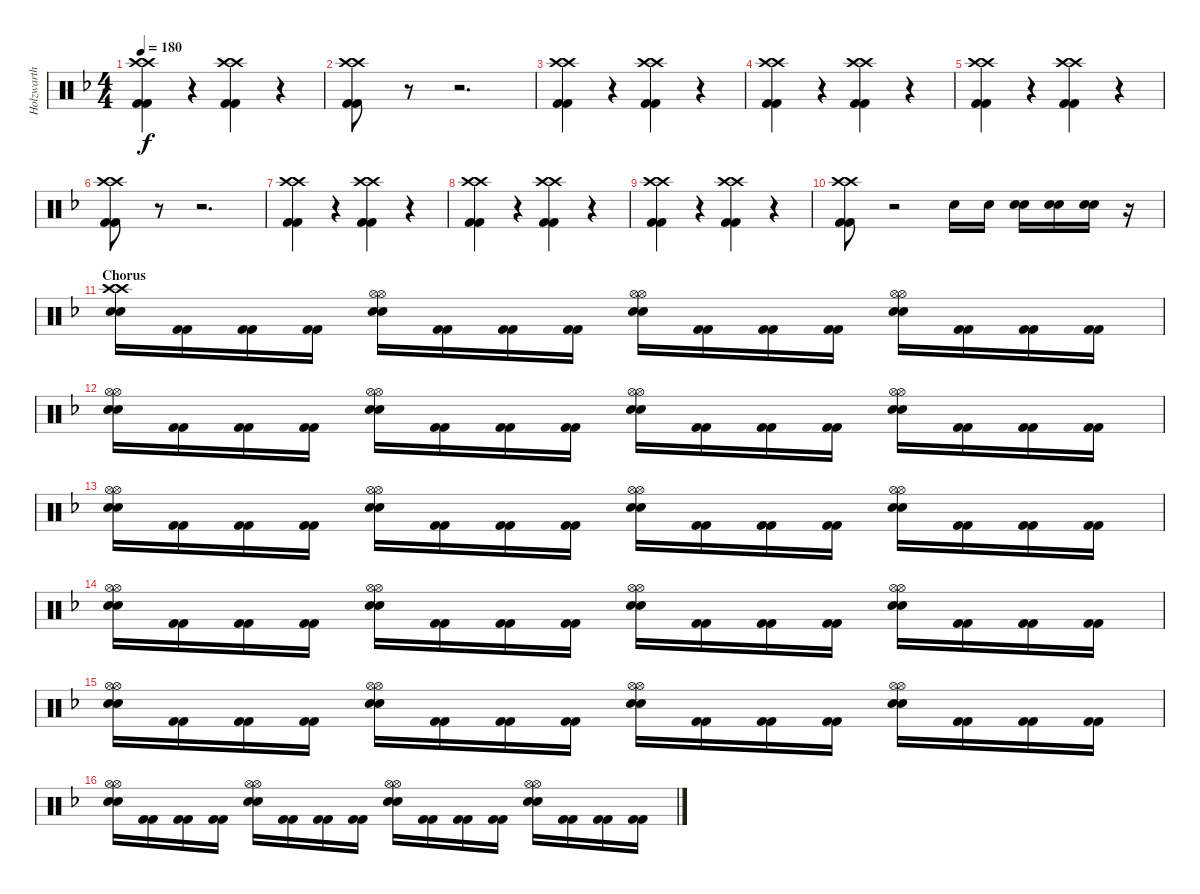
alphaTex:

\track ("Holzwarth" "Holzwarth") {instrument percussion}
\staff {score}
\articulation defaults
\ts (4 4)
\tempo 180
\clef neutral
\ks dminor
("Kick (hit) 2" "Kick (hit) 2" "Crash high (hit)" "Crash high (hit)").4{dy f} r.4 ("Kick (hit) 2" "Kick (hit) 2" "Crash high (hit)" "Crash high (hit)").4 r.4 |
("Kick (hit) 2" "Kick (hit) 2" "Crash high (hit)" "Crash high (hit)").8 r.8 r.2{d} |
("Kick (hit) 2" "Kick (hit) 2" "Crash high (hit)" "Crash high (hit)").4 r.4 ("Kick (hit) 2" "Kick (hit) 2" "Crash high (hit)" "Crash high (hit)").4 r.4 |
("Kick (hit) 2" "Kick (hit) 2" "Crash high (hit)" "Crash high (hit)").4 r.4 ("Kick (hit) 2" "Kick (hit) 2" "Crash high (hit)" "Crash high (hit)").4 r.4 |
("Kick (hit) 2" "Kick (hit) 2" "Crash high (hit)" "Crash high (hit)").4 r.4 ("Kick (hit) 2" "Kick (hit) 2" "Crash high (hit)" "Crash high (hit)").4 r.4 |
("Kick (hit) 2" "Kick (hit) 2" "Crash high (hit)" "Crash high (hit)").8 r.8 r.2{d} |
("Kick (hit) 2" "Kick (hit) 2" "Crash high (hit)" "Crash high (hit)").4 r.4 ("Kick (hit) 2" "Kick (hit) 2" "Crash high (hit)" "Crash high (hit)").4 r.4 |
("Kick (hit) 2" "Kick (hit) 2" "Crash high (hit)" "Crash high (hit)").4 r.4 ("Kick (hit) 2" "Kick (hit) 2" "Crash high (hit)" "Crash high (hit)").4 r.4 |
("Kick (hit) 2" "Kick (hit) 2" "Crash high (hit)" "Crash high (hit)").4 r.4 ("Kick (hit) 2" "Kick (hit) 2" "Crash high (hit)" "Crash high (hit)").4 r.4 |
("Kick (hit) 2" "Kick (hit) 2" "Crash high (hit)" "Crash high (hit)").8 r.2 "Snare (hit) 2".16 "Snare (hit) 2".16 ("Snare (hit) 2" "Snare (hit) 2").16 ("Snare (hit) 2" "Snare (hit) 2").16 ("Snare (hit) 2" "Snare (hit) 2").16 r.16 |
\section ("" "Chorus")
("Snare (hit) 2" "Snare (hit) 2" "Crash high (hit)" "Crash high (hit)").16 ("Kick (hit) 2" "Kick (hit) 2").16 ("Kick (hit) 2" "Kick (hit) 2").16 ("Kick (hit) 2" "Kick (hit) 2").16 ("Snare (hit) 2" "Snare (hit) 2" "Hi-Hat (open)" "Hi-Hat (open)").16 ("Kick (hit) 2" "Kick (hit) 2").16 ("Kick (hit) 2" "Kick (hit) 2").16 ("Kick (hit) 2" "Kick (hit) 2").16 ("Snare (hit) 2" "Snare (hit) 2" "Hi-Hat (open)" "Hi-Hat (open)").16 ("Kick (hit) 2" "Kick (hit) 2").16 ("Kick (hit) 2" "Kick (hit) 2").16 ("Kick (hit) 2" "Kick (hit) 2").16 ("Snare (hit) 2" "Snare (hit) 2" "Hi-Hat (open)" "Hi-Hat (open)").16 ("Kick (hit) 2" "Kick (hit) 2").16 ("Kick (hit) 2" "Kick (hit) 2").16 ("Kick (hit) 2" "Kick (hit) 2").16 |
("Snare (hit) 2" "Snare (hit) 2" "Hi-Hat (open)" "Hi-Hat (open)").16 ("Kick (hit) 2" "Kick (hit) 2").16 ("Kick (hit) 2" "Kick (hit) 2").16 ("Kick (hit) 2" "Kick (hit) 2").16 ("Snare (hit) 2" "Snare (hit) 2" "Hi-Hat (open)" "Hi-Hat (open)").16 ("Kick (hit) 2" "Kick (hit) 2").16 ("Kick (hit) 2" "Kick (hit) 2").16 ("Kick (hit) 2" "Kick (hit) 2").16 ("Snare (hit) 2" "Snare (hit) 2" "Hi-Hat (open)" "Hi-Hat (open)").16 ("Kick (hit) 2" "Kick (hit) 2").16 ("Kick (hit) 2" "Kick (hit) 2").16 ("Kick (hit) 2" "Kick (hit) 2").16 ("Snare (hit) 2" "Snare (hit) 2" "Hi-Hat (open)" "Hi-Hat (open)").16 ("Kick (hit) 2" "Kick (hit) 2").16 ("Kick (hit) 2" "Kick (hit) 2").16 ("Kick (hit) 2" "Kick (hit) 2").16 |
("Snare (hit) 2" "Snare (hit) 2" "Hi-Hat (open)" "Hi-Hat (open)").16 ("Kick (hit) 2" "Kick (hit) 2").16 ("Kick (hit) 2" "Kick (hit) 2").16 ("Kick (hit) 2" "Kick (hit) 2").16 ("Snare (hit) 2" "Snare (hit) 2" "Hi-Hat (open)" "Hi-Hat (open)").16 ("Kick (hit) 2" "Kick (hit) 2").16 ("Kick (hit) 2" "Kick (hit) 2").16 ("Kick (hit) 2" "Kick (hit) 2").16 ("Snare (hit) 2" "Snare (hit) 2" "Hi-Hat (open)" "Hi-Hat (open)").16 ("Kick (hit) 2" "Kick (hit) 2").16 ("Kick (hit) 2" "Kick (hit) 2").16 ("Kick (hit) 2" "Kick (hit) 2").16 ("Snare (hit) 2" "Snare (hit) 2" "Hi-Hat (open)" "Hi-Hat (open)").16 ("Kick (hit) 2" "Kick (hit) 2").16 ("Kick (hit) 2" "Kick (hit) 2").16 ("Kick (hit) 2" "Kick (hit) 2").16 |
("Snare (hit) 2" "Snare (hit) 2" "Hi-Hat (open)" "Hi-Hat (open)").16 ("Kick (hit) 2" "Kick (hit) 2").16 ("Kick (hit) 2" "Kick (hit) 2").16 ("Kick (hit) 2" "Kick (hit) 2").16 ("Snare (hit) 2" "Snare (hit) 2" "Hi-Hat (open)" "Hi-Hat (open)").16 ("Kick (hit) 2" "Kick (hit) 2").16 ("Kick (hit) 2" "Kick (hit) 2").16 ("Kick (hit) 2" "Kick (hit) 2").16 ("Snare (hit) 2" "Snare (hit) 2" "Hi-Hat (open)" "Hi-Hat (open)").16 ("Kick (hit) 2" "Kick (hit) 2").16 ("Kick (hit) 2" "Kick (hit) 2").16 ("Kick (hit) 2" "Kick (hit) 2").16 ("Snare (hit) 2" "Snare (hit) 2" "Hi-Hat (open)" "Hi-Hat (open)").16 ("Kick (hit) 2" "Kick (hit) 2").16 ("Kick (hit) 2" "Kick (hit) 2").16 ("Kick (hit) 2" "Kick (hit) 2").16 |
("Snare (hit) 2" "Snare (hit) 2" "Hi-Hat (open)" "Hi-Hat (open)").16 ("Kick (hit) 2" "Kick (hit) 2").16 ("Kick (hit) 2" "Kick (hit) 2").16 ("Kick (hit) 2" "Kick (hit) 2").16 ("Snare (hit) 2" "Snare (hit) 2" "Hi-Hat (open)" "Hi-Hat (open)").16 ("Kick (hit) 2" "Kick (hit) 2").16 ("Kick (hit) 2" "Kick (hit) 2").16 ("Kick (hit) 2" "Kick (hit) 2").16 ("Snare (hit) 2" "Snare (hit) 2" "Hi-Hat (open)" "Hi-Hat (open)").16 ("Kick (hit) 2" "Kick (hit) 2").16 ("Kick (hit) 2" "Kick (hit) 2").16 ("Kick (hit) 2" "Kick (hit) 2").16 ("Snare (hit) 2" "Snare (hit) 2" "Hi-Hat (open)" "Hi-Hat (open)").16 ("Kick (hit) 2" "Kick (hit) 2").16 ("Kick (hit) 2" "Kick (hit) 2").16 ("Kick (hit) 2" "Kick (hit) 2").16 |
("Snare (hit) 2" "Snare (hit) 2" "Hi-Hat (open)" "Hi-Hat (open)").16 ("Kick (hit) 2" "Kick (hit) 2").16 ("Kick (hit) 2" "Kick (hit) 2").16 ("Kick (hit) 2" "Kick (hit) 2").16 ("Snare (hit) 2" "Snare (hit) 2" "Hi-Hat (open)" "Hi-Hat (open)").16 ("Kick (hit) 2" "Kick (hit) 2").16 ("Kick (hit) 2" "Kick (hit) 2").16 ("Kick (hit) 2" "Kick (hit) 2").16 ("Snare (hit) 2" "Snare (hit) 2" "Hi-Hat (open)" "Hi-Hat (open)").16 ("Kick (hit) 2" "Kick (hit) 2").16 ("Kick (hit) 2" "Kick (hit) 2").16 ("Kick (hit) 2" "Kick (hit) 2").16 ("Snare (hit) 2" "Snare (hit) 2" "Hi-Hat (open)" "Hi-Hat (open)").16 ("Kick (hit) 2" "Kick (hit) 2").16 ("Kick (hit) 2" "Kick (hit) 2").16 ("Kick (hit) 2" "Kick (hit) 2").16
